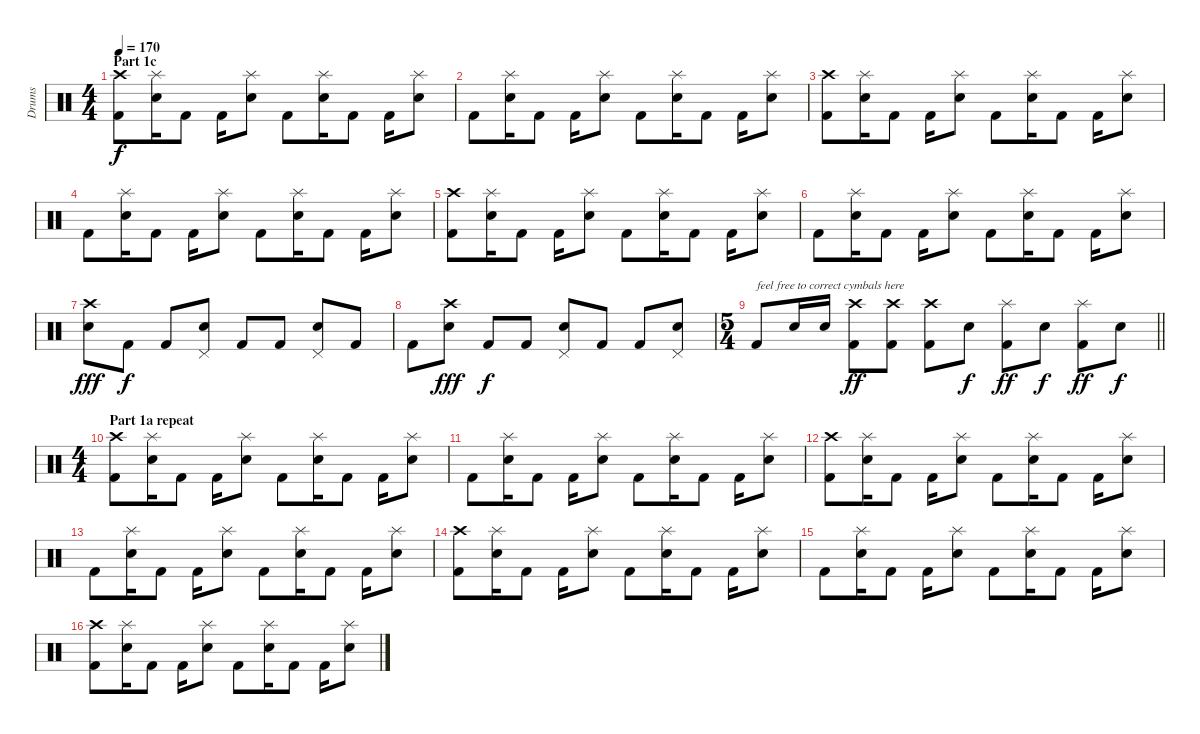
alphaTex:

\track ("Drums" "Drums") {instrument percussion}
\staff {score}
\articulation defaults
\ts (4 4)
\section ("" "Part 1c")
\tempo 170
\clef neutral
\ks c
("Kick (hit) 2" "Crash high (hit)").8{dy f} ("Electric Snare (hit)" "Splash (hit)").16 "Kick (hit) 2".8 "Kick (hit) 2".16 ("Electric Snare (hit)" "Splash (hit)").8 "Kick (hit) 2".8 ("Electric Snare (hit)" "Splash (hit)").16 "Kick (hit) 2".8 "Kick (hit) 2".16 ("Electric Snare (hit)" "Splash (hit)").8 |
"Kick (hit) 2".8 ("Electric Snare (hit)" "Splash (hit)").16 "Kick (hit) 2".8 "Kick (hit) 2".16 ("Electric Snare (hit)" "Splash (hit)").8 "Kick (hit) 2".8 ("Electric Snare (hit)" "Splash (hit)").16 "Kick (hit) 2".8 "Kick (hit) 2".16 ("Electric Snare (hit)" "Splash (hit)").8 |
("Kick (hit) 2" "Crash high (hit)").8 ("Electric Snare (hit)" "Splash (hit)").16 "Kick (hit) 2".8 "Kick (hit) 2".16 ("Electric Snare (hit)" "Splash (hit)").8 "Kick (hit) 2".8 ("Electric Snare (hit)" "Splash (hit)").16 "Kick (hit) 2".8 "Kick (hit) 2".16 ("Electric Snare (hit)" "Splash (hit)").8 |
"Kick (hit) 2".8 ("Electric Snare (hit)" "Splash (hit)").16 "Kick (hit) 2".8 "Kick (hit) 2".16 ("Electric Snare (hit)" "Splash (hit)").8 "Kick (hit) 2".8 ("Electric Snare (hit)" "Splash (hit)").16 "Kick (hit) 2".8 "Kick (hit) 2".16 ("Electric Snare (hit)" "Splash (hit)").8 |
("Kick (hit) 2" "Crash high (hit)").8 ("Electric Snare (hit)" "Splash (hit)").16 "Kick (hit) 2".8 "Kick (hit) 2".16 ("Electric Snare (hit)" "Splash (hit)").8 "Kick (hit) 2".8 ("Electric Snare (hit)" "Splash (hit)").16 "Kick (hit) 2".8 "Kick (hit) 2".16 ("Electric Snare (hit)" "Splash (hit)").8 |
"Kick (hit) 2".8 ("Electric Snare (hit)" "Splash (hit)").16 "Kick (hit) 2".8 "Kick (hit) 2".16 ("Electric Snare (hit)" "Splash (hit)").8 "Kick (hit) 2".8 ("Electric Snare (hit)" "Splash (hit)").16 "Kick (hit) 2".8 "Kick (hit) 2".16 ("Electric Snare (hit)" "Splash (hit)").8 |
("Electric Snare (hit)" "Crash high (hit)").8{dy fff} "Kick (hit) 2".8{dy f} "Kick (hit) 2".8 ("Electric Snare (hit)" "Pedal Hi-Hat (hit)").8 "Kick (hit) 2".8 "Kick (hit) 2".8 ("Electric Snare (hit)" "Pedal Hi-Hat (hit)").8 "Kick (hit) 2".8 |
"Kick (hit) 2".8 ("Electric Snare (hit)" "Crash high (hit)").8{dy fff} "Kick (hit) 2".8{dy f} "Kick (hit) 2".8 ("Electric Snare (hit)" "Pedal Hi-Hat (hit)").8 "Kick (hit) 2".8 "Kick (hit) 2".8 ("Electric Snare (hit)" "Pedal Hi-Hat (hit)").8 |
\ts (5 4)
\barLineRight lightlight "Kick (hit) 2".8{txt "feel free to correct cymbals here"} "Electric Snare (hit)".16 "Electric Snare (hit)".16
("Kick (hit) 2" "Crash high (hit)").8{dy ff} ("Kick (hit) 2" "Crash high (hit)").8 ("Kick (hit) 2" "Crash high (hit)").8 "Electric Snare (hit)".8{dy f} ("Kick (hit) 2" "Splash (hit)").8{dy ff} "Electric Snare (hit)".8{dy f} ("Kick (hit) 2" "Splash (hit)").8{dy ff} "Electric Snare (hit)".8{dy f} |
\ts (4 4)
\section ("" "Part 1a repeat")
("Kick (hit) 2" "Crash high (hit)").8 ("Electric Snare (hit)" "Splash (hit)").16 "Kick (hit) 2".8 "Kick (hit) 2".16 ("Electric Snare (hit)" "Splash (hit)").8 "Kick (hit) 2".8 ("Electric Snare (hit)" "Splash (hit)").16 "Kick (hit) 2".8 "Kick (hit) 2".16 ("Electric Snare (hit)" "Splash (hit)").8 |
"Kick (hit) 2".8 ("Electric Snare (hit)" "Splash (hit)").16 "Kick (hit) 2".8 "Kick (hit) 2".16 ("Electric Snare (hit)" "Splash (hit)").8 "Kick (hit) 2".8 ("Electric Snare (hit)" "Splash (hit)").16 "Kick (hit) 2".8 "Kick (hit) 2".16 ("Electric Snare (hit)" "Splash (hit)").8 |
("Kick (hit) 2" "Crash high (hit)").8 ("Electric Snare (hit)" "Splash (hit)").16 "Kick (hit) 2".8 "Kick (hit) 2".16 ("Electric Snare (hit)" "Splash (hit)").8 "Kick (hit) 2".8 ("Electric Snare (hit)" "Splash (hit)").16 "Kick (hit) 2".8 "Kick (hit) 2".16 ("Electric Snare (hit)" "Splash (hit)").8 |
"Kick (hit) 2".8 ("Electric Snare (hit)" "Splash (hit)").16 "Kick (hit) 2".8 "Kick (hit) 2".16 ("Electric Snare (hit)" "Splash (hit)").8 "Kick (hit) 2".8 ("Electric Snare (hit)" "Splash (hit)").16 "Kick (hit) 2".8 "Kick (hit) 2".16 ("Electric Snare (hit)" "Splash (hit)").8 |
("Kick (hit) 2" "Crash high (hit)").8 ("Electric Snare (hit)" "Splash (hit)").16 "Kick (hit) 2".8 "Kick (hit) 2".16 ("Electric Snare (hit)" "Splash (hit)").8 "Kick (hit) 2".8 ("Electric Snare (hit)" "Splash (hit)").16 "Kick (hit) 2".8 "Kick (hit) 2".16 ("Electric Snare (hit)" "Splash (hit)").8 |
"Kick (hit) 2".8 ("Electric Snare (hit)" "Splash (hit)").16 "Kick (hit) 2".8 "Kick (hit) 2".16 ("Electric Snare (hit)" "Splash (hit)").8 "Kick (hit) 2".8 ("Electric Snare (hit)" "Splash (hit)").16 "Kick (hit) 2".8 "Kick (hit) 2".16 ("Electric Snare (hit)" "Splash (hit)").8 |
("Kick (hit) 2" "Crash high (hit)").8 ("Electric Snare (hit)" "Splash (hit)").16 "Kick (hit) 2".8 "Kick (hit) 2".16 ("Electric Snare (hit)" "Splash (hit)").8 "Kick (hit) 2".8 ("Electric Snare (hit)" "Splash (hit)").16 "Kick (hit) 2".8 "Kick (hit) 2".16 ("Electric Snare (hit)" "Splash (hit)").8
